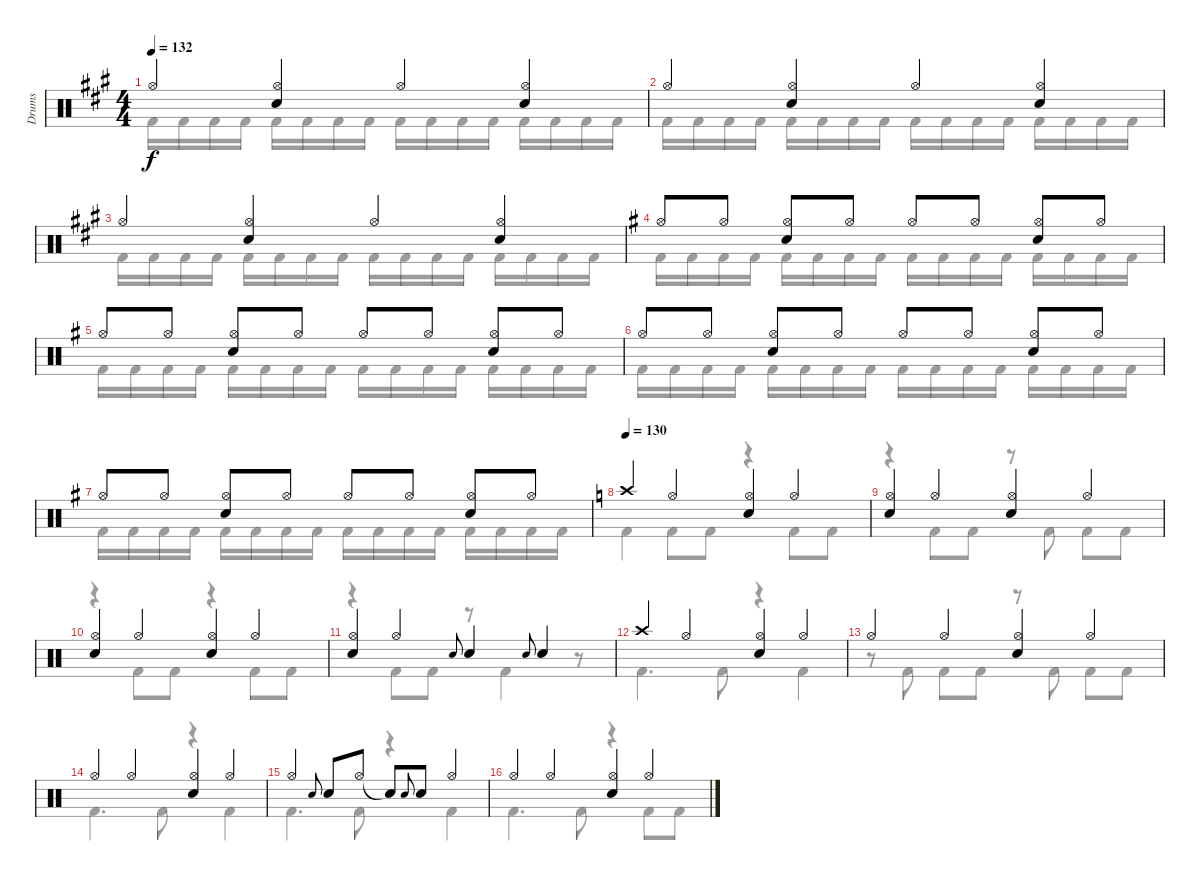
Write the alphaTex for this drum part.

\track ("Drums" "Drums") {instrument percussion}
\staff {score}
\articulation defaults
\voice
\ts (4 4)
\tempo 132
\clef neutral
\ks a "Hi-Hat (open)".4{dy f}
("Hi-Hat (open)" "Electric Snare (hit)").4 "Hi-Hat (open)".4 ("Hi-Hat (open)" "Electric Snare (hit)").4 |
"Hi-Hat (open)".4 ("Hi-Hat (open)" "Snare (hit)").4 "Hi-Hat (open)".4 ("Hi-Hat (open)" "Electric Snare (hit)").4 |
"Hi-Hat (open)".4 ("Hi-Hat (open)" "Electric Snare (hit)").4 "Hi-Hat (open)".4 ("Hi-Hat (open)" "Electric Snare (hit)").4 |
\ks g "Hi-Hat (open)".8 "Hi-Hat (open)".8
("Hi-Hat (open)" "Electric Snare (hit)").8 "Hi-Hat (open)".8 "Hi-Hat (open)".8 "Hi-Hat (open)".8 ("Hi-Hat (open)" "Electric Snare (hit)").8 "Hi-Hat (open)".8 |
"Hi-Hat (open)".8 "Hi-Hat (open)".8 ("Hi-Hat (open)" "Electric Snare (hit)").8 "Hi-Hat (open)".8 "Hi-Hat (open)".8 "Hi-Hat (open)".8 ("Hi-Hat (open)" "Electric Snare (hit)").8 "Hi-Hat (open)".8 |
"Hi-Hat (open)".8 "Hi-Hat (open)".8 ("Hi-Hat (open)" "Electric Snare (hit)").8 "Hi-Hat (open)".8 "Hi-Hat (open)".8 "Hi-Hat (open)".8 ("Hi-Hat (open)" "Electric Snare (hit)").8 "Hi-Hat (open)".8 |
"Hi-Hat (open)".8 "Hi-Hat (open)".8 ("Hi-Hat (open)" "Electric Snare (hit)").8 "Hi-Hat (open)".8 "Hi-Hat (open)".8 "Hi-Hat (open)".8 ("Hi-Hat (open)" "Electric Snare (hit)").8 "Hi-Hat (open)".8 |
\tempo 130
\ks c "Crash high (hit)".4 "Hi-Hat (open)".4
("Hi-Hat (open)" "Electric Snare (hit)").4 "Hi-Hat (open)".4 |
("Hi-Hat (open)" "Electric Snare (hit)").4 "Hi-Hat (open)".4 ("Hi-Hat (open)" "Electric Snare (hit)").4 "Hi-Hat (open)".4 |
("Hi-Hat (open)" "Electric Snare (hit)").4 "Hi-Hat (open)".4 ("Hi-Hat (open)" "Electric Snare (hit)").4 "Hi-Hat (open)".4 |
("Hi-Hat (open)" "Electric Snare (hit)").4 "Hi-Hat (open)".4 "Electric Snare (hit)".8{gr onbeat} "Electric Snare (hit)".4 "Electric Snare (hit)".8{gr onbeat} "Electric Snare (hit)".4 |
"Crash high (hit)".4 "Hi-Hat (open)".4 ("Hi-Hat (open)" "Electric Snare (hit)").4 "Hi-Hat (open)".4 |
"Hi-Hat (open)".4 "Hi-Hat (open)".4 ("Hi-Hat (open)" "Electric Snare (hit)").4 "Hi-Hat (open)".4 |
"Hi-Hat (open)".4 "Hi-Hat (open)".4 ("Hi-Hat (open)" "Electric Snare (hit)").4 "Hi-Hat (open)".4 |
"Hi-Hat (open)".4 "Electric Snare (hit)".8{gr onbeat} "Electric Snare (hit)".8 "Hi-Hat (open)".8 "Snare (hit)"{t}.8 "Electric Snare (hit)".8{gr onbeat} "Electric Snare (hit)".8 "Hi-Hat (open)".4 |
"Hi-Hat (open)".4 "Hi-Hat (open)".4 ("Hi-Hat (open)" "Electric Snare (hit)").4 "Hi-Hat (open)".4
\voice
\clef neutral
\ottava regular
\simile none
\ks a "Kick (hit) 2".16{dy f} "Kick (hit) 2".16 "Kick (hit) 2".16 "Kick (hit) 2".16 "Kick (hit) 2".16 "Kick (hit) 2".16 "Kick (hit) 2".16 "Kick (hit) 2".16 "Kick (hit) 2".16 "Kick (hit) 2".16 "Kick (hit) 2".16 "Kick (hit) 2".16 "Kick (hit) 2".16 "Kick (hit) 2".16 "Kick (hit) 2".16 "Kick (hit) 2".16
|
"Kick (hit) 2".16 "Kick (hit) 2".16 "Kick (hit) 2".16 "Kick (hit) 2".16 "Kick (hit) 2".16 "Kick (hit) 2".16 "Kick (hit) 2".16 "Kick (hit) 2".16 "Kick (hit) 2".16 "Kick (hit) 2".16 "Kick (hit) 2".16 "Kick (hit) 2".16 "Kick (hit) 2".16 "Kick (hit) 2".16 "Kick (hit) 2".16 "Kick (hit) 2".16 |
"Kick (hit) 2".16 "Kick (hit) 2".16 "Kick (hit) 2".16 "Kick (hit) 2".16 "Kick (hit) 2".16 "Kick (hit) 2".16 "Kick (hit) 2".16 "Kick (hit) 2".16 "Kick (hit) 2".16 "Kick (hit) 2".16 "Kick (hit) 2".16 "Kick (hit) 2".16 "Kick (hit) 2".16 "Kick (hit) 2".16 "Kick (hit) 2".16 "Kick (hit) 2".16 |
\ks g "Kick (hit) 2".16 "Kick (hit) 2".16 "Kick (hit) 2".16 "Kick (hit) 2".16 "Kick (hit) 2".16 "Kick (hit) 2".16 "Kick (hit) 2".16 "Kick (hit) 2".16 "Kick (hit) 2".16 "Kick (hit) 2".16 "Kick (hit) 2".16 "Kick (hit) 2".16 "Kick (hit) 2".16 "Kick (hit) 2".16 "Kick (hit) 2".16 "Kick (hit) 2".16
|
"Kick (hit) 2".16 "Kick (hit) 2".16 "Kick (hit) 2".16 "Kick (hit) 2".16 "Kick (hit) 2".16 "Kick (hit) 2".16 "Kick (hit) 2".16 "Kick (hit) 2".16 "Kick (hit) 2".16 "Kick (hit) 2".16 "Kick (hit) 2".16 "Kick (hit) 2".16 "Kick (hit) 2".16 "Kick (hit) 2".16 "Kick (hit) 2".16 "Kick (hit) 2".16 |
"Kick (hit) 2".16 "Kick (hit) 2".16 "Kick (hit) 2".16 "Kick (hit) 2".16 "Kick (hit) 2".16 "Kick (hit) 2".16 "Kick (hit) 2".16 "Kick (hit) 2".16 "Kick (hit) 2".16 "Kick (hit) 2".16 "Kick (hit) 2".16 "Kick (hit) 2".16 "Kick (hit) 2".16 "Kick (hit) 2".16 "Kick (hit) 2".16 "Kick (hit) 2".16 |
"Kick (hit) 2".16 "Kick (hit) 2".16 "Kick (hit) 2".16 "Kick (hit) 2".16 "Kick (hit) 2".16 "Kick (hit) 2".16 "Kick (hit) 2".16 "Kick (hit) 2".16 "Kick (hit) 2".16 "Kick (hit) 2".16 "Kick (hit) 2".16 "Kick (hit) 2".16 "Kick (hit) 2".16 "Kick (hit) 2".16 "Kick (hit) 2".16 "Kick (hit) 2".16 |
\ks c "Kick (hit) 2".4 "Kick (hit) 2".8 "Kick (hit) 2".8
r.4 "Kick (hit) 2".8 "Kick (hit) 2".8 |
r.4 "Kick (hit) 2".8 "Kick (hit) 2".8 r.8 "Kick (hit) 2".8 "Kick (hit) 2".8 "Kick (hit) 2".8 |
r.4 "Kick (hit) 2".8 "Kick (hit) 2".8 r.4 "Kick (hit) 2".8 "Kick (hit) 2".8 |
r.4 "Kick (hit) 2".8 "Kick (hit) 2".8 r.8 "Kick (hit) 2".4 r.8 |
"Kick (hit) 2".4{d} "Kick (hit) 2".8 r.4 "Kick (hit) 2".4 |
r.8 "Kick (hit) 2".8 "Kick (hit) 2".8 "Kick (hit) 2".8 r.8 "Kick (hit) 2".8 "Kick (hit) 2".8 "Kick (hit) 2".8 |
"Kick (hit) 2".4{d} "Kick (hit) 2".8 r.4 "Kick (hit) 2".4 |
"Kick (hit) 2".4{d} "Kick (hit) 2".8 r.4 "Kick (hit) 2".4 |
"Kick (hit) 2".4{d} "Kick (hit) 2".8 r.4 "Kick (hit) 2".8{beam merge} "Kick (hit) 2".8
